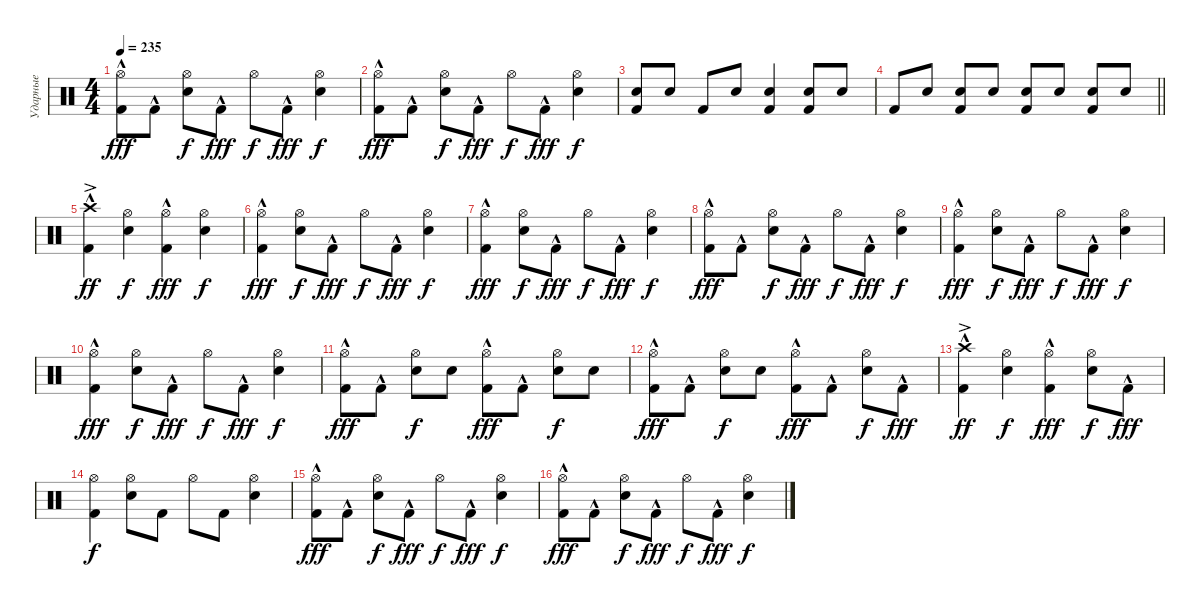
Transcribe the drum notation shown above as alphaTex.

\track ("Ударные" "Ударные") {instrument percussion}
\staff {score}
\articulation defaults
\ts (4 4)
\tempo 235
\clef neutral
\ks c
("Kick (hit) 2"{hac} "Hi-Hat (open)").8{dy fff} "Kick (hit) 2"{hac}.8 ("Snare (hit) 2" "Hi-Hat (open)").8{dy f} "Kick (hit) 2"{hac}.8{dy fff} "Hi-Hat (open)".8{dy f} "Kick (hit) 2"{hac}.8{dy fff} ("Snare (hit) 2" "Hi-Hat (open)").4{dy f} |
("Kick (hit) 2"{hac} "Hi-Hat (open)").8{dy fff} "Kick (hit) 2"{hac}.8 ("Snare (hit) 2" "Hi-Hat (open)").8{dy f} "Kick (hit) 2"{hac}.8{dy fff} "Hi-Hat (open)".8{dy f} "Kick (hit) 2"{hac}.8{dy fff} ("Snare (hit) 2" "Hi-Hat (open)").4{dy f} |
("Kick (hit) 2" "Snare (hit) 2").8 "Snare (hit) 2".8 "Kick (hit) 2".8 "Snare (hit) 2".8 ("Kick (hit) 2" "Snare (hit) 2").4 ("Kick (hit) 2" "Snare (hit) 2").8 "Snare (hit) 2".8 |
\barLineRight lightlight "Kick (hit) 2".8 "Snare (hit) 2".8
("Kick (hit) 2" "Snare (hit) 2").8 "Snare (hit) 2".8 ("Kick (hit) 2" "Snare (hit) 2").8 "Snare (hit) 2".8 ("Kick (hit) 2" "Snare (hit) 2").8 "Snare (hit) 2".8 |
("Kick (hit) 2"{hac} "Crash high (hit)"{ac}).4{dy ff} ("Snare (hit) 2" "Hi-Hat (open)").4{dy f} ("Kick (hit) 2"{hac} "Hi-Hat (open)").4{dy fff} ("Snare (hit) 2" "Hi-Hat (open)").4{dy f} |
("Kick (hit) 2"{hac} "Hi-Hat (open)").4{dy fff} ("Snare (hit) 2" "Hi-Hat (open)").8{dy f} "Kick (hit) 2"{hac}.8{dy fff} "Hi-Hat (open)".8{dy f} "Kick (hit) 2"{hac}.8{dy fff} ("Snare (hit) 2" "Hi-Hat (open)").4{dy f} |
("Kick (hit) 2"{hac} "Hi-Hat (open)").4{dy fff} ("Snare (hit) 2" "Hi-Hat (open)").8{dy f} "Kick (hit) 2"{hac}.8{dy fff} "Hi-Hat (open)".8{dy f} "Kick (hit) 2"{hac}.8{dy fff} ("Snare (hit) 2" "Hi-Hat (open)").4{dy f} |
("Kick (hit) 2"{hac} "Hi-Hat (open)").8{dy fff} "Kick (hit) 2"{hac}.8 ("Snare (hit) 2" "Hi-Hat (open)").8{dy f} "Kick (hit) 2"{hac}.8{dy fff} "Hi-Hat (open)".8{dy f} "Kick (hit) 2"{hac}.8{dy fff} ("Snare (hit) 2" "Hi-Hat (open)").4{dy f} |
("Kick (hit) 2"{hac} "Hi-Hat (open)").4{dy fff} ("Snare (hit) 2" "Hi-Hat (open)").8{dy f} "Kick (hit) 2"{hac}.8{dy fff} "Hi-Hat (open)".8{dy f} "Kick (hit) 2"{hac}.8{dy fff} ("Snare (hit) 2" "Hi-Hat (open)").4{dy f} |
("Kick (hit) 2"{hac} "Hi-Hat (open)").4{dy fff} ("Snare (hit) 2" "Hi-Hat (open)").8{dy f} "Kick (hit) 2"{hac}.8{dy fff} "Hi-Hat (open)".8{dy f} "Kick (hit) 2"{hac}.8{dy fff} ("Snare (hit) 2" "Hi-Hat (open)").4{dy f} |
("Kick (hit) 2"{hac} "Hi-Hat (open)").8{dy fff} "Kick (hit) 2"{hac}.8 ("Snare (hit) 2" "Hi-Hat (open)").8{dy f} "Snare (hit) 2".8 ("Kick (hit) 2"{hac} "Hi-Hat (open)").8{dy fff} "Kick (hit) 2"{hac}.8 ("Snare (hit) 2" "Hi-Hat (open)").8{dy f} "Snare (hit) 2".8 |
("Kick (hit) 2"{hac} "Hi-Hat (open)").8{dy fff} "Kick (hit) 2"{hac}.8 ("Snare (hit) 2" "Hi-Hat (open)").8{dy f} "Snare (hit) 2".8 ("Kick (hit) 2"{hac} "Hi-Hat (open)").8{dy fff} "Kick (hit) 2"{hac}.8 ("Snare (hit) 2" "Hi-Hat (open)").8{dy f} "Kick (hit) 2"{hac}.8{dy fff} |
("Kick (hit) 2"{hac} "Crash high (hit)"{ac}).4{dy ff} ("Snare (hit) 2" "Hi-Hat (open)").4{dy f} ("Kick (hit) 2"{hac} "Hi-Hat (open)").4{dy fff} ("Snare (hit) 2" "Hi-Hat (open)").8{dy f} "Kick (hit) 2"{hac}.8{dy fff} |
("Kick (hit) 2" "Hi-Hat (open)").4{dy f} ("Snare (hit) 2" "Hi-Hat (open)").8 "Kick (hit) 2".8 "Hi-Hat (open)".8 "Kick (hit) 2".8 ("Snare (hit) 2" "Hi-Hat (open)").4 |
("Kick (hit) 2"{hac} "Hi-Hat (open)").8{dy fff} "Kick (hit) 2"{hac}.8 ("Snare (hit) 2" "Hi-Hat (open)").8{dy f} "Kick (hit) 2"{hac}.8{dy fff} "Hi-Hat (open)".8{dy f} "Kick (hit) 2"{hac}.8{dy fff} ("Snare (hit) 2" "Hi-Hat (open)").4{dy f} |
("Kick (hit) 2"{hac} "Hi-Hat (open)").8{dy fff} "Kick (hit) 2"{hac}.8 ("Snare (hit) 2" "Hi-Hat (open)").8{dy f} "Kick (hit) 2"{hac}.8{dy fff} "Hi-Hat (open)".8{dy f} "Kick (hit) 2"{hac}.8{dy fff} ("Snare (hit) 2" "Hi-Hat (open)").4{dy f}
